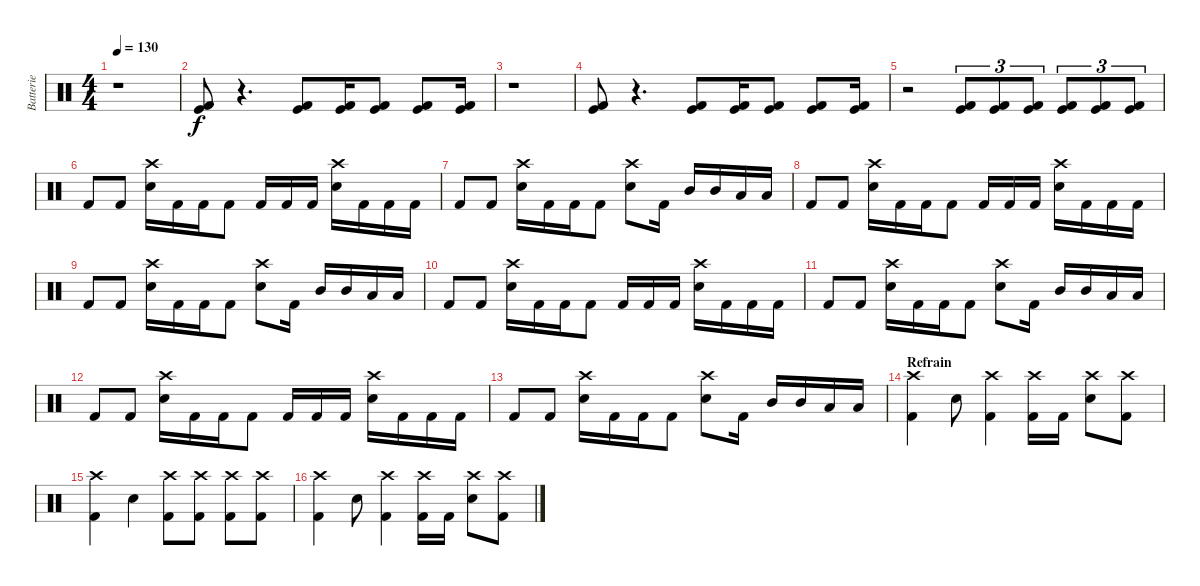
\track ("Batterie" "Batterie") {instrument percussion}
\staff {score}
\articulation defaults
\ts (4 4)
\tempo 130
\clef neutral
\ks c
r.1{dy f} |
("Kick (hit)" "Kick (hit) 2").8 r.4{d} ("Kick (hit)" "Kick (hit) 2").8 ("Kick (hit)" "Kick (hit) 2").16 ("Kick (hit)" "Kick (hit) 2").8 ("Kick (hit)" "Kick (hit) 2").8 ("Kick (hit)" "Kick (hit) 2").16 |
r.1 |
("Kick (hit)" "Kick (hit) 2").8 r.4{d} ("Kick (hit)" "Kick (hit) 2").8 ("Kick (hit)" "Kick (hit) 2").16 ("Kick (hit)" "Kick (hit) 2").8 ("Kick (hit)" "Kick (hit) 2").8 ("Kick (hit)" "Kick (hit) 2").16 |
r.2 ("Kick (hit)" "Kick (hit) 2").8{tu (3 2)} ("Kick (hit)" "Kick (hit) 2").8{tu (3 2)} ("Kick (hit)" "Kick (hit) 2").8{tu (3 2)} ("Kick (hit)" "Kick (hit) 2").8{tu (3 2)} ("Kick (hit)" "Kick (hit) 2").8{tu (3 2)} ("Kick (hit)" "Kick (hit) 2").8{tu (3 2)} |
"Kick (hit) 2".8 "Kick (hit) 2".8 ("Crash high (hit)" "Electric Snare (hit)").16 "Kick (hit) 2".16 "Kick (hit) 2".16 "Kick (hit) 2".8 "Kick (hit) 2".16 "Kick (hit) 2".16 "Kick (hit) 2".16 ("Crash high (hit)" "Electric Snare (hit)").16 "Kick (hit) 2".16 "Kick (hit) 2".16 "Kick (hit) 2".16 |
"Kick (hit) 2".8 "Kick (hit) 2".8 ("Crash high (hit)" "Electric Snare (hit)").16 "Kick (hit) 2".16 "Kick (hit) 2".16 "Kick (hit) 2".8 ("Crash high (hit)" "Electric Snare (hit)").8 "Kick (hit) 2".16 "Mid Tom (hit)".16 "Mid Tom (hit)".16 "Low Tom (hit)".16 "Low Tom (hit)".16 |
"Kick (hit) 2".8 "Kick (hit) 2".8 ("Crash high (hit)" "Electric Snare (hit)").16 "Kick (hit) 2".16 "Kick (hit) 2".16 "Kick (hit) 2".8 "Kick (hit) 2".16 "Kick (hit) 2".16 "Kick (hit) 2".16 ("Crash high (hit)" "Electric Snare (hit)").16 "Kick (hit) 2".16 "Kick (hit) 2".16 "Kick (hit) 2".16 |
"Kick (hit) 2".8 "Kick (hit) 2".8 ("Crash high (hit)" "Electric Snare (hit)").16 "Kick (hit) 2".16 "Kick (hit) 2".16 "Kick (hit) 2".8 ("Crash high (hit)" "Electric Snare (hit)").8 "Kick (hit) 2".16 "Mid Tom (hit)".16 "Mid Tom (hit)".16 "Low Tom (hit)".16 "Low Tom (hit)".16 |
"Kick (hit) 2".8 "Kick (hit) 2".8 ("Crash high (hit)" "Electric Snare (hit)").16 "Kick (hit) 2".16 "Kick (hit) 2".16 "Kick (hit) 2".8 "Kick (hit) 2".16 "Kick (hit) 2".16 "Kick (hit) 2".16 ("Crash high (hit)" "Electric Snare (hit)").16 "Kick (hit) 2".16 "Kick (hit) 2".16 "Kick (hit) 2".16 |
"Kick (hit) 2".8 "Kick (hit) 2".8 ("Crash high (hit)" "Electric Snare (hit)").16 "Kick (hit) 2".16 "Kick (hit) 2".16 "Kick (hit) 2".8 ("Crash high (hit)" "Electric Snare (hit)").8 "Kick (hit) 2".16 "Mid Tom (hit)".16 "Mid Tom (hit)".16 "Low Tom (hit)".16 "Low Tom (hit)".16 |
"Kick (hit) 2".8 "Kick (hit) 2".8 ("Crash high (hit)" "Electric Snare (hit)").16 "Kick (hit) 2".16 "Kick (hit) 2".16 "Kick (hit) 2".8 "Kick (hit) 2".16 "Kick (hit) 2".16 "Kick (hit) 2".16 ("Crash high (hit)" "Electric Snare (hit)").16 "Kick (hit) 2".16 "Kick (hit) 2".16 "Kick (hit) 2".16 |
"Kick (hit) 2".8 "Kick (hit) 2".8 ("Crash high (hit)" "Electric Snare (hit)").16 "Kick (hit) 2".16 "Kick (hit) 2".16 "Kick (hit) 2".8 ("Crash high (hit)" "Electric Snare (hit)").8 "Kick (hit) 2".16 "Mid Tom (hit)".16 "Mid Tom (hit)".16 "Low Tom (hit)".16 "Low Tom (hit)".16 |
\section ("" "Refrain")
("Crash high (hit)" "Kick (hit) 2").4 "Electric Snare (hit)".8 ("Crash high (hit)" "Kick (hit) 2").4 ("Crash high (hit)" "Kick (hit) 2").16 "Kick (hit) 2".16 ("Crash high (hit)" "Electric Snare (hit)").8 ("Crash high (hit)" "Kick (hit) 2").8 |
("Crash high (hit)" "Kick (hit) 2").4 "Electric Snare (hit)".4 ("Crash high (hit)" "Kick (hit) 2").8 ("Crash high (hit)" "Kick (hit) 2").8 ("Crash high (hit)" "Kick (hit) 2").8 ("Crash high (hit)" "Kick (hit) 2").8 |
("Crash high (hit)" "Kick (hit) 2").4 "Electric Snare (hit)".8 ("Crash high (hit)" "Kick (hit) 2").4 ("Crash high (hit)" "Kick (hit) 2").16 "Kick (hit) 2".16 ("Crash high (hit)" "Electric Snare (hit)").8 ("Crash high (hit)" "Kick (hit) 2").8
